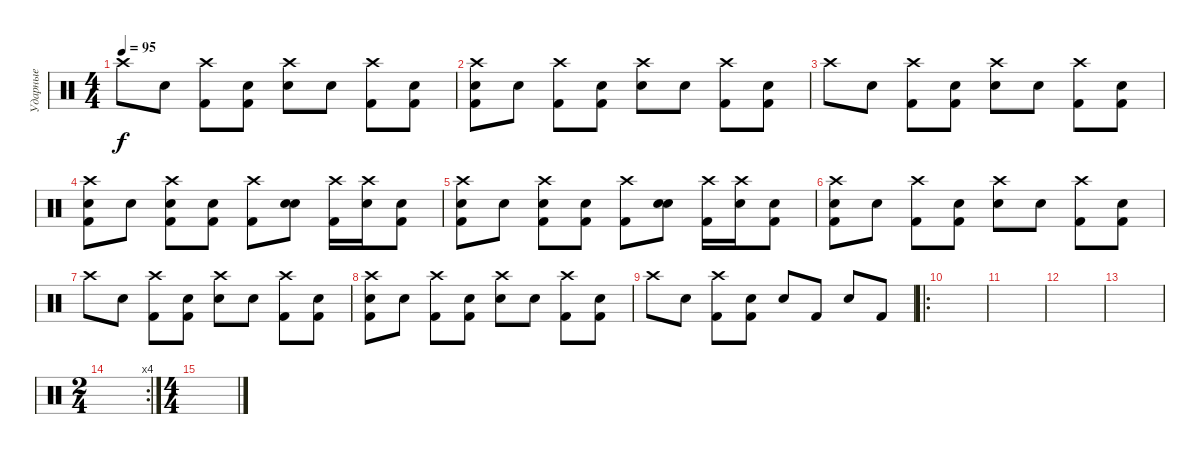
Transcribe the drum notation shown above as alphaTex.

\track ("Ударные" "Ударные") {instrument percussion}
\staff {score}
\articulation defaults
\ts (4 4)
\tempo 95
\clef neutral
\ks c "Crash high (hit)".8{dy f} "Snare (hit)".8
("Crash high (hit)" "Kick (hit) 2").8 ("Snare (hit)" "Kick (hit) 2").8 ("Crash high (hit)" "Electric Snare (hit)").8 "Snare (hit)".8 ("Crash high (hit)" "Kick (hit) 2").8 ("Snare (hit)" "Kick (hit) 2").8 |
("Crash high (hit)" "Kick (hit) 2" "Snare (hit) 2").8 "Snare (hit)".8 ("Crash high (hit)" "Kick (hit) 2").8 ("Snare (hit)" "Kick (hit) 2").8 ("Crash high (hit)" "Electric Snare (hit)").8 "Snare (hit)".8 ("Crash high (hit)" "Kick (hit) 2").8 ("Snare (hit)" "Kick (hit) 2").8 |
"Crash high (hit)".8 "Snare (hit)".8 ("Crash high (hit)" "Kick (hit) 2").8 ("Snare (hit)" "Kick (hit) 2").8 ("Crash high (hit)" "Electric Snare (hit)").8 "Snare (hit)".8 ("Crash high (hit)" "Kick (hit) 2").8 ("Snare (hit)" "Kick (hit) 2").8 |
("Crash high (hit)" "Kick (hit) 2" "Snare (hit) 2").8 "Snare (hit)".8 ("Crash high (hit)" "Kick (hit) 2" "Snare (hit) 2").8 ("Snare (hit)" "Kick (hit) 2").8 ("Crash high (hit)" "Kick (hit) 2").8 ("Snare (hit)" "Electric Snare (hit)").8 ("Crash high (hit)" "Kick (hit) 2").16 ("Crash high (hit)" "Electric Snare (hit)").16 ("Snare (hit)" "Kick (hit) 2").8 |
("Crash high (hit)" "Kick (hit) 2" "Snare (hit) 2").8 "Snare (hit)".8 ("Crash high (hit)" "Kick (hit) 2" "Snare (hit) 2").8 ("Snare (hit)" "Kick (hit) 2").8 ("Crash high (hit)" "Kick (hit) 2").8 ("Snare (hit)" "Electric Snare (hit)").8 ("Crash high (hit)" "Kick (hit) 2").16 ("Crash high (hit)" "Electric Snare (hit)").16 ("Snare (hit)" "Kick (hit) 2").8 |
("Crash high (hit)" "Kick (hit) 2" "Snare (hit) 2").8{volume 16} "Snare (hit)".8 ("Crash high (hit)" "Kick (hit) 2").8 ("Snare (hit)" "Kick (hit) 2").8 ("Crash high (hit)" "Electric Snare (hit)").8 "Snare (hit)".8 ("Crash high (hit)" "Kick (hit) 2").8 ("Snare (hit)" "Kick (hit) 2").8 |
"Crash high (hit)".8 "Snare (hit)".8 ("Crash high (hit)" "Kick (hit) 2").8 ("Snare (hit)" "Kick (hit) 2").8 ("Crash high (hit)" "Electric Snare (hit)").8 "Snare (hit)".8 ("Crash high (hit)" "Kick (hit) 2").8 ("Snare (hit)" "Kick (hit) 2").8 |
("Crash high (hit)" "Kick (hit) 2" "Snare (hit) 2").8 "Snare (hit)".8 ("Crash high (hit)" "Kick (hit) 2").8 ("Snare (hit)" "Kick (hit) 2").8 ("Crash high (hit)" "Electric Snare (hit)").8 "Snare (hit)".8 ("Crash high (hit)" "Kick (hit) 2").8 ("Snare (hit)" "Kick (hit) 2").8 |
"Crash high (hit)".8 "Snare (hit)".8 ("Crash high (hit)" "Kick (hit) 2").8 ("Snare (hit)" "Kick (hit) 2").8 "Electric Snare (hit)".8 "Kick (hit) 2".8 "Electric Snare (hit)".8 "Kick (hit) 2".8 |
\ro
|
|
|
|
\rc 4
\ts (2 4)
|
\ts (4 4)
